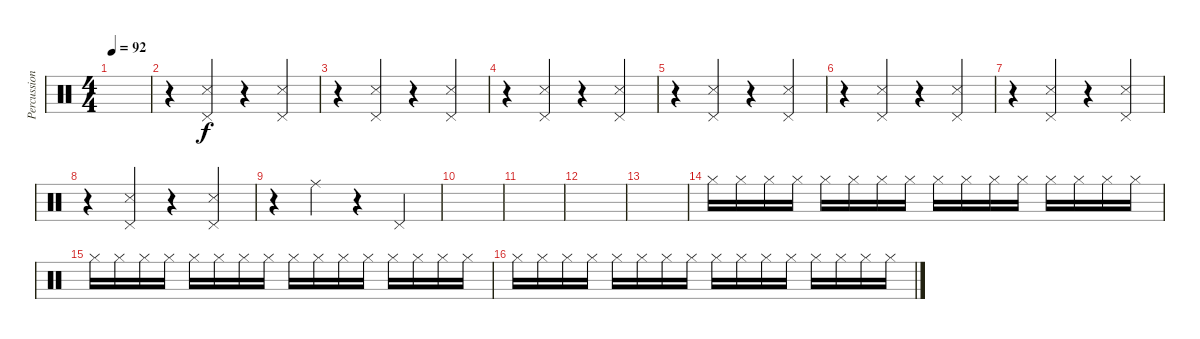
\track ("Percussion" "Percussion") {instrument percussion}
\staff {score}
\articulation defaults
\ts (4 4)
\tempo 92
\clef neutral
\ks c
|
r.4 ("Pedal Hi-Hat (hit)" "Snare (side stick) 3").4 r.4 ("Pedal Hi-Hat (hit)" "Snare (side stick) 3").4 |
r.4 ("Pedal Hi-Hat (hit)" "Snare (side stick) 3").4 r.4 ("Pedal Hi-Hat (hit)" "Snare (side stick) 3").4 |
r.4 ("Pedal Hi-Hat (hit)" "Snare (side stick) 3").4 r.4 ("Pedal Hi-Hat (hit)" "Snare (side stick) 3").4 |
r.4 ("Pedal Hi-Hat (hit)" "Snare (side stick) 3").4 r.4 ("Pedal Hi-Hat (hit)" "Snare (side stick) 3").4 |
r.4 ("Pedal Hi-Hat (hit)" "Snare (side stick) 3").4 r.4 ("Pedal Hi-Hat (hit)" "Snare (side stick) 3").4 |
r.4 ("Pedal Hi-Hat (hit)" "Snare (side stick) 3").4 r.4 ("Pedal Hi-Hat (hit)" "Snare (side stick) 3").4 |
r.4 ("Pedal Hi-Hat (hit)" "Snare (side stick) 3").4 r.4 ("Pedal Hi-Hat (hit)" "Snare (side stick) 3").4 |
r.4 "Ride (middle)".4 r.4 "Pedal Hi-Hat (hit)".4 |
|
|
|
|
"Hi-Hat (closed)".16 "Hi-Hat (closed)".16 "Hi-Hat (closed)".16 "Hi-Hat (closed)".16 "Hi-Hat (closed)".16 "Hi-Hat (closed)".16 "Hi-Hat (closed)".16 "Hi-Hat (closed)".16 "Hi-Hat (closed)".16 "Hi-Hat (closed)".16 "Hi-Hat (closed)".16 "Hi-Hat (closed)".16 "Hi-Hat (closed)".16 "Hi-Hat (closed)".16 "Hi-Hat (closed)".16 "Hi-Hat (closed)".16 |
"Hi-Hat (closed)".16 "Hi-Hat (closed)".16 "Hi-Hat (closed)".16 "Hi-Hat (closed)".16 "Hi-Hat (closed)".16 "Hi-Hat (closed)".16 "Hi-Hat (closed)".16 "Hi-Hat (closed)".16 "Hi-Hat (closed)".16 "Hi-Hat (closed)".16 "Hi-Hat (closed)".16 "Hi-Hat (closed)".16 "Hi-Hat (closed)".16 "Hi-Hat (closed)".16 "Hi-Hat (closed)".16 "Hi-Hat (closed)".16 |
"Hi-Hat (closed)".16 "Hi-Hat (closed)".16 "Hi-Hat (closed)".16 "Hi-Hat (closed)".16 "Hi-Hat (closed)".16 "Hi-Hat (closed)".16 "Hi-Hat (closed)".16 "Hi-Hat (closed)".16 "Hi-Hat (closed)".16 "Hi-Hat (closed)".16 "Hi-Hat (closed)".16 "Hi-Hat (closed)".16 "Hi-Hat (closed)".16 "Hi-Hat (closed)".16 "Hi-Hat (closed)".16 "Hi-Hat (closed)".16
